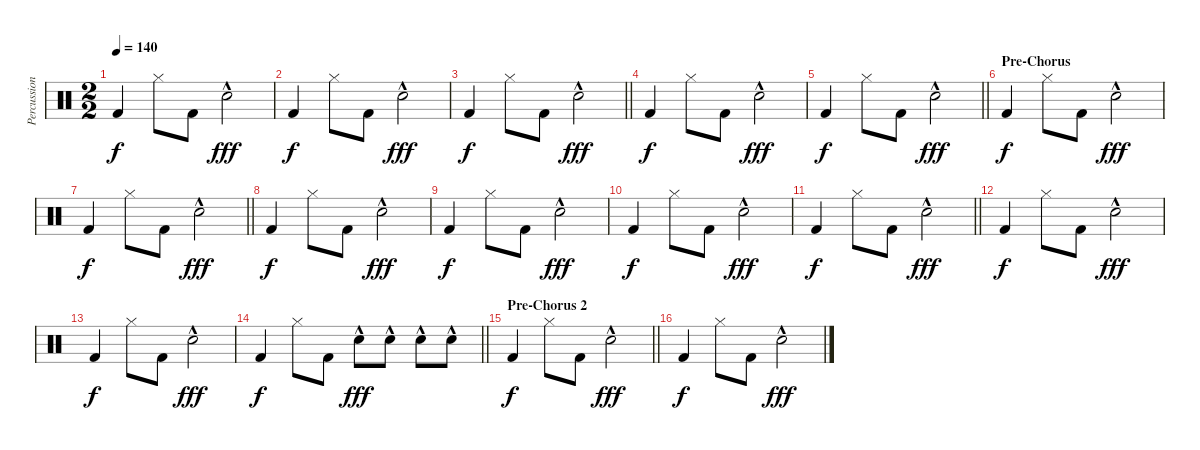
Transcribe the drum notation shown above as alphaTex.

\track ("Percussion" "Percussion") {instrument percussion}
\staff {score}
\articulation defaults
\ts (2 2)
\tempo 140
\clef neutral
\ks c "Kick (hit) 2".4{dy f} "Hi-Hat (closed)".8 "Kick (hit) 2".8 "Hand Clap (hit)"{hac}.2{dy fff}
|
"Kick (hit) 2".4{dy f} "Hi-Hat (closed)".8 "Kick (hit) 2".8 "Hand Clap (hit)"{hac}.2{dy fff} |
\barLineRight lightlight "Kick (hit) 2".4{dy f} "Hi-Hat (closed)".8 "Kick (hit) 2".8 "Hand Clap (hit)"{hac}.2{dy fff}
|
"Kick (hit) 2".4{dy f} "Hi-Hat (closed)".8 "Kick (hit) 2".8 "Hand Clap (hit)"{hac}.2{dy fff} |
\barLineRight lightlight "Kick (hit) 2".4{dy f} "Hi-Hat (closed)".8 "Kick (hit) 2".8 "Hand Clap (hit)"{hac}.2{dy fff}
|
\section ("" "Pre-Chorus")
"Kick (hit) 2".4{dy f} "Hi-Hat (closed)".8 "Kick (hit) 2".8 "Hand Clap (hit)"{hac}.2{dy fff} |
\barLineRight lightlight "Kick (hit) 2".4{dy f} "Hi-Hat (closed)".8 "Kick (hit) 2".8 "Hand Clap (hit)"{hac}.2{dy fff}
|
"Kick (hit) 2".4{dy f} "Hi-Hat (closed)".8 "Kick (hit) 2".8 "Hand Clap (hit)"{hac}.2{dy fff} |
"Kick (hit) 2".4{dy f} "Hi-Hat (closed)".8 "Kick (hit) 2".8 "Hand Clap (hit)"{hac}.2{dy fff} |
"Kick (hit) 2".4{dy f} "Hi-Hat (closed)".8 "Kick (hit) 2".8 "Hand Clap (hit)"{hac}.2{dy fff} |
\barLineRight lightlight "Kick (hit) 2".4{dy f} "Hi-Hat (closed)".8 "Kick (hit) 2".8 "Hand Clap (hit)"{hac}.2{dy fff}
|
"Kick (hit) 2".4{dy f} "Hi-Hat (closed)".8 "Kick (hit) 2".8 "Hand Clap (hit)"{hac}.2{dy fff} |
"Kick (hit) 2".4{dy f} "Hi-Hat (closed)".8 "Kick (hit) 2".8 "Hand Clap (hit)"{hac}.2{dy fff} |
\barLineRight lightlight "Kick (hit) 2".4{dy f} "Hi-Hat (closed)".8 "Kick (hit) 2".8 "Hand Clap (hit)"{hac}.8{dy fff} "Hand Clap (hit)"{hac}.8 "Hand Clap (hit)"{hac}.8 "Hand Clap (hit)"{hac}.8
|
\section ("" "Pre-Chorus 2")
\barLineRight lightlight "Kick (hit) 2".4{dy f} "Hi-Hat (closed)".8 "Kick (hit) 2".8 "Hand Clap (hit)"{hac}.2{dy fff}
|
"Kick (hit) 2".4{dy f} "Hi-Hat (closed)".8 "Kick (hit) 2".8 "Hand Clap (hit)"{hac}.2{dy fff}
